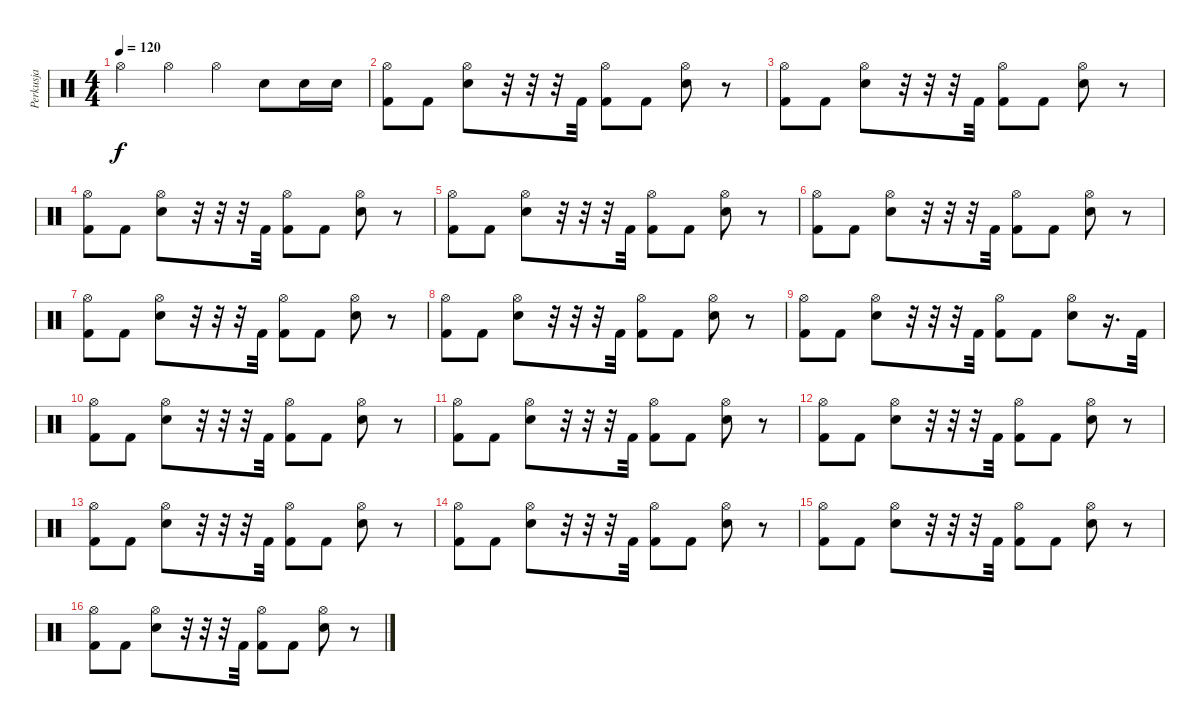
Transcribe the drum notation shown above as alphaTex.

\track ("Perkusja" "Perkusja") {instrument percussion}
\staff {score}
\articulation defaults
\ts (4 4)
\tempo 120
\clef neutral
\ks c "Hi-Hat (open)".4{dy f} "Hi-Hat (open)".4 "Hi-Hat (open)".4 "Electric Snare (hit)".8 "Electric Snare (hit)".16 "Electric Snare (hit)".16
|
("Hi-Hat (open)" "Kick (hit) 2").8 "Kick (hit) 2".8 ("Hi-Hat (open)" "Electric Snare (hit)").8 r.32 r.32 r.32 "Kick (hit) 2".32 ("Hi-Hat (open)" "Kick (hit) 2").8 "Kick (hit) 2".8 ("Hi-Hat (open)" "Electric Snare (hit)").8 r.8 |
("Hi-Hat (open)" "Kick (hit) 2").8 "Kick (hit) 2".8 ("Hi-Hat (open)" "Electric Snare (hit)").8 r.32 r.32 r.32 "Kick (hit) 2".32 ("Hi-Hat (open)" "Kick (hit) 2").8 "Kick (hit) 2".8 ("Hi-Hat (open)" "Electric Snare (hit)").8 r.8 |
("Hi-Hat (open)" "Kick (hit) 2").8 "Kick (hit) 2".8 ("Hi-Hat (open)" "Electric Snare (hit)").8 r.32 r.32 r.32 "Kick (hit) 2".32 ("Hi-Hat (open)" "Kick (hit) 2").8 "Kick (hit) 2".8 ("Hi-Hat (open)" "Electric Snare (hit)").8 r.8 |
("Hi-Hat (open)" "Kick (hit) 2").8 "Kick (hit) 2".8 ("Hi-Hat (open)" "Electric Snare (hit)").8 r.32 r.32 r.32 "Kick (hit) 2".32 ("Hi-Hat (open)" "Kick (hit) 2").8 "Kick (hit) 2".8 ("Hi-Hat (open)" "Electric Snare (hit)").8 r.8 |
("Hi-Hat (open)" "Kick (hit) 2").8 "Kick (hit) 2".8 ("Hi-Hat (open)" "Electric Snare (hit)").8 r.32 r.32 r.32 "Kick (hit) 2".32 ("Hi-Hat (open)" "Kick (hit) 2").8 "Kick (hit) 2".8 ("Hi-Hat (open)" "Electric Snare (hit)").8 r.8 |
("Hi-Hat (open)" "Kick (hit) 2").8 "Kick (hit) 2".8 ("Hi-Hat (open)" "Electric Snare (hit)").8 r.32 r.32 r.32 "Kick (hit) 2".32 ("Hi-Hat (open)" "Kick (hit) 2").8 "Kick (hit) 2".8 ("Hi-Hat (open)" "Electric Snare (hit)").8 r.8 |
("Hi-Hat (open)" "Kick (hit) 2").8 "Kick (hit) 2".8 ("Hi-Hat (open)" "Electric Snare (hit)").8 r.32 r.32 r.32 "Kick (hit) 2".32 ("Hi-Hat (open)" "Kick (hit) 2").8 "Kick (hit) 2".8 ("Hi-Hat (open)" "Electric Snare (hit)").8 r.8 |
("Hi-Hat (open)" "Kick (hit) 2").8 "Kick (hit) 2".8 ("Hi-Hat (open)" "Electric Snare (hit)").8 r.32 r.32 r.32 "Kick (hit) 2".32 ("Hi-Hat (open)" "Kick (hit) 2").8 "Kick (hit) 2".8 ("Hi-Hat (open)" "Electric Snare (hit)").8 r.16{d} "Kick (hit) 2".32 |
("Hi-Hat (open)" "Kick (hit) 2").8 "Kick (hit) 2".8 ("Hi-Hat (open)" "Electric Snare (hit)").8 r.32 r.32 r.32 "Kick (hit) 2".32 ("Hi-Hat (open)" "Kick (hit) 2").8 "Kick (hit) 2".8 ("Hi-Hat (open)" "Electric Snare (hit)").8 r.8 |
("Hi-Hat (open)" "Kick (hit) 2").8 "Kick (hit) 2".8 ("Hi-Hat (open)" "Electric Snare (hit)").8 r.32 r.32 r.32 "Kick (hit) 2".32 ("Hi-Hat (open)" "Kick (hit) 2").8 "Kick (hit) 2".8 ("Hi-Hat (open)" "Electric Snare (hit)").8 r.8 |
("Hi-Hat (open)" "Kick (hit) 2").8 "Kick (hit) 2".8 ("Hi-Hat (open)" "Electric Snare (hit)").8 r.32 r.32 r.32 "Kick (hit) 2".32 ("Hi-Hat (open)" "Kick (hit) 2").8 "Kick (hit) 2".8 ("Hi-Hat (open)" "Electric Snare (hit)").8 r.8 |
("Hi-Hat (open)" "Kick (hit) 2").8 "Kick (hit) 2".8 ("Hi-Hat (open)" "Electric Snare (hit)").8 r.32 r.32 r.32 "Kick (hit) 2".32 ("Hi-Hat (open)" "Kick (hit) 2").8 "Kick (hit) 2".8 ("Hi-Hat (open)" "Electric Snare (hit)").8 r.8 |
("Hi-Hat (open)" "Kick (hit) 2").8 "Kick (hit) 2".8 ("Hi-Hat (open)" "Electric Snare (hit)").8 r.32 r.32 r.32 "Kick (hit) 2".32 ("Hi-Hat (open)" "Kick (hit) 2").8 "Kick (hit) 2".8 ("Hi-Hat (open)" "Electric Snare (hit)").8 r.8 |
("Hi-Hat (open)" "Kick (hit) 2").8 "Kick (hit) 2".8 ("Hi-Hat (open)" "Electric Snare (hit)").8 r.32 r.32 r.32 "Kick (hit) 2".32 ("Hi-Hat (open)" "Kick (hit) 2").8 "Kick (hit) 2".8 ("Hi-Hat (open)" "Electric Snare (hit)").8 r.8 |
("Hi-Hat (open)" "Kick (hit) 2").8 "Kick (hit) 2".8 ("Hi-Hat (open)" "Electric Snare (hit)").8 r.32 r.32 r.32 "Kick (hit) 2".32 ("Hi-Hat (open)" "Kick (hit) 2").8 "Kick (hit) 2".8 ("Hi-Hat (open)" "Electric Snare (hit)").8 r.8
